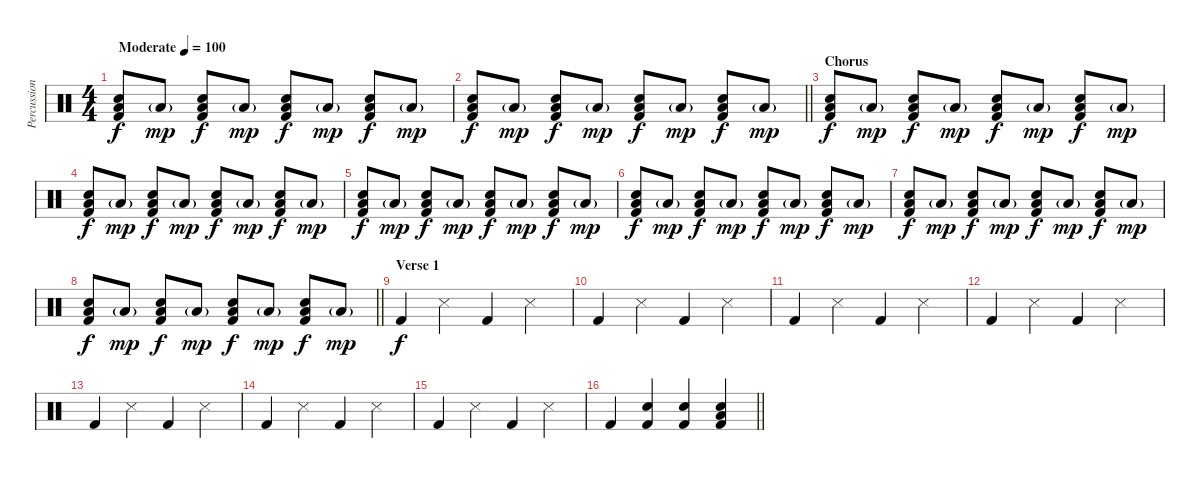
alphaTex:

\track ("Percussion" "Percussion") {instrument percussion}
\staff {score}
\articulation defaults
\ts (4 4)
\tempo (100 "Moderate")
\clef neutral
\ks c
("Hand Clap (hit)" "Low Tom (hit)" "Kick (hit) 2").8{dy f} "Low Tom (hit)"{g}.8{dy mp} ("Hand Clap (hit)" "Low Tom (hit)" "Kick (hit) 2").8{dy f} "Low Tom (hit)"{g}.8{dy mp} ("Hand Clap (hit)" "Low Tom (hit)" "Kick (hit) 2").8{dy f} "Low Tom (hit)"{g}.8{dy mp} ("Hand Clap (hit)" "Low Tom (hit)" "Kick (hit) 2").8{dy f} "Low Tom (hit)"{g}.8{dy mp} |
\barLineRight lightlight
("Hand Clap (hit)" "Low Tom (hit)" "Kick (hit) 2").8{dy f} "Low Tom (hit)"{g}.8{dy mp} ("Hand Clap (hit)" "Low Tom (hit)" "Kick (hit) 2").8{dy f} "Low Tom (hit)"{g}.8{dy mp} ("Hand Clap (hit)" "Low Tom (hit)" "Kick (hit) 2").8{dy f} "Low Tom (hit)"{g}.8{dy mp} ("Hand Clap (hit)" "Low Tom (hit)" "Kick (hit) 2").8{dy f} "Low Tom (hit)"{g}.8{dy mp} |
\section ("" "Chorus")
("Hand Clap (hit)" "Low Tom (hit)" "Kick (hit) 2").8{dy f} "Low Tom (hit)"{g}.8{dy mp} ("Hand Clap (hit)" "Low Tom (hit)" "Kick (hit) 2").8{dy f} "Low Tom (hit)"{g}.8{dy mp} ("Hand Clap (hit)" "Low Tom (hit)" "Kick (hit) 2").8{dy f} "Low Tom (hit)"{g}.8{dy mp} ("Hand Clap (hit)" "Low Tom (hit)" "Kick (hit) 2").8{dy f} "Low Tom (hit)"{g}.8{dy mp} |
("Hand Clap (hit)" "Low Tom (hit)" "Kick (hit) 2").8{dy f} "Low Tom (hit)"{g}.8{dy mp} ("Hand Clap (hit)" "Low Tom (hit)" "Kick (hit) 2").8{dy f} "Low Tom (hit)"{g}.8{dy mp} ("Hand Clap (hit)" "Low Tom (hit)" "Kick (hit) 2").8{dy f} "Low Tom (hit)"{g}.8{dy mp} ("Hand Clap (hit)" "Low Tom (hit)" "Kick (hit) 2").8{dy f} "Low Tom (hit)"{g}.8{dy mp} |
("Hand Clap (hit)" "Low Tom (hit)" "Kick (hit) 2").8{dy f} "Low Tom (hit)"{g}.8{dy mp} ("Hand Clap (hit)" "Low Tom (hit)" "Kick (hit) 2").8{dy f} "Low Tom (hit)"{g}.8{dy mp} ("Hand Clap (hit)" "Low Tom (hit)" "Kick (hit) 2").8{dy f} "Low Tom (hit)"{g}.8{dy mp} ("Hand Clap (hit)" "Low Tom (hit)" "Kick (hit) 2").8{dy f} "Low Tom (hit)"{g}.8{dy mp} |
("Hand Clap (hit)" "Low Tom (hit)" "Kick (hit) 2").8{dy f} "Low Tom (hit)"{g}.8{dy mp} ("Hand Clap (hit)" "Low Tom (hit)" "Kick (hit) 2").8{dy f} "Low Tom (hit)"{g}.8{dy mp} ("Hand Clap (hit)" "Low Tom (hit)" "Kick (hit) 2").8{dy f} "Low Tom (hit)"{g}.8{dy mp} ("Hand Clap (hit)" "Low Tom (hit)" "Kick (hit) 2").8{dy f} "Low Tom (hit)"{g}.8{dy mp} |
("Hand Clap (hit)" "Low Tom (hit)" "Kick (hit) 2").8{dy f} "Low Tom (hit)"{g}.8{dy mp} ("Hand Clap (hit)" "Low Tom (hit)" "Kick (hit) 2").8{dy f} "Low Tom (hit)"{g}.8{dy mp} ("Hand Clap (hit)" "Low Tom (hit)" "Kick (hit) 2").8{dy f} "Low Tom (hit)"{g}.8{dy mp} ("Hand Clap (hit)" "Low Tom (hit)" "Kick (hit) 2").8{dy f} "Low Tom (hit)"{g}.8{dy mp} |
\barLineRight lightlight
("Hand Clap (hit)" "Low Tom (hit)" "Kick (hit) 2").8{dy f} "Low Tom (hit)"{g}.8{dy mp} ("Hand Clap (hit)" "Low Tom (hit)" "Kick (hit) 2").8{dy f} "Low Tom (hit)"{g}.8{dy mp} ("Hand Clap (hit)" "Low Tom (hit)" "Kick (hit) 2").8{dy f} "Low Tom (hit)"{g}.8{dy mp} ("Hand Clap (hit)" "Low Tom (hit)" "Kick (hit) 2").8{dy f} "Low Tom (hit)"{g}.8{dy mp} |
\section ("" "Verse 1")
"Kick (hit) 2".4{dy f} "Snare (side stick) 3".4 "Kick (hit) 2".4 "Snare (side stick) 3".4 |
"Kick (hit) 2".4 "Snare (side stick) 3".4 "Kick (hit) 2".4 "Snare (side stick) 3".4 |
"Kick (hit) 2".4 "Snare (side stick) 3".4 "Kick (hit) 2".4 "Snare (side stick) 3".4 |
"Kick (hit) 2".4 "Snare (side stick) 3".4 "Kick (hit) 2".4 "Snare (side stick) 3".4 |
"Kick (hit) 2".4 "Snare (side stick) 3".4 "Kick (hit) 2".4 "Snare (side stick) 3".4 |
"Kick (hit) 2".4 "Snare (side stick) 3".4 "Kick (hit) 2".4 "Snare (side stick) 3".4 |
"Kick (hit) 2".4 "Snare (side stick) 3".4 "Kick (hit) 2".4 "Snare (side stick) 3".4 |
\barLineRight lightlight "Kick (hit) 2".4
("Hand Clap (hit)" "Kick (hit) 2").4 ("Hand Clap (hit)" "Kick (hit) 2").4 ("Hand Clap (hit)" "Low Tom (hit)" "Kick (hit) 2").4
